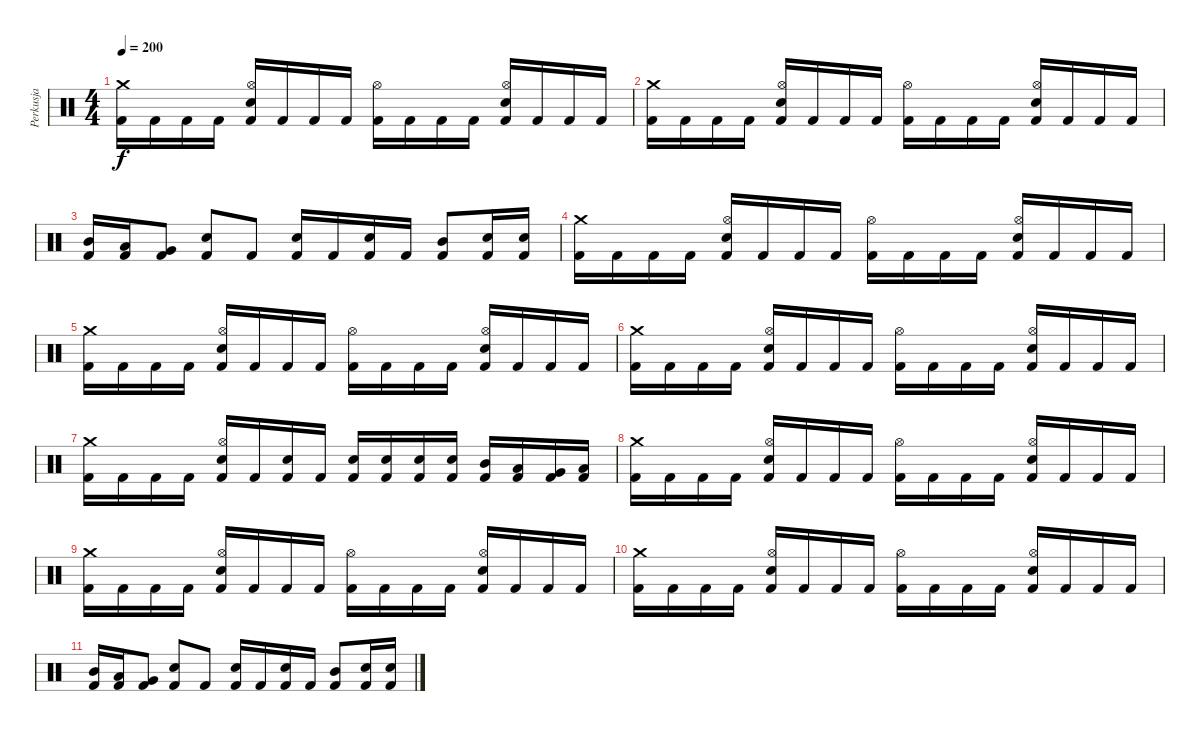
\track ("Perkusja" "Perkusja") {instrument percussion}
\staff {score}
\articulation defaults
\ts (4 4)
\tempo 200
\clef neutral
\ks c
("Crash medium (hit)" "Kick (hit) 2").16{dy f} "Kick (hit) 2".16 "Kick (hit) 2".16 "Kick (hit) 2".16 ("Hi-Hat (open)" "Electric Snare (hit)" "Kick (hit) 2").16 "Kick (hit) 2".16 "Kick (hit) 2".16 "Kick (hit) 2".16 ("Hi-Hat (open)" "Kick (hit) 2").16 "Kick (hit) 2".16 "Kick (hit) 2".16 "Kick (hit) 2".16 ("Hi-Hat (open)" "Electric Snare (hit)" "Kick (hit) 2").16 "Kick (hit) 2".16 "Kick (hit) 2".16 "Kick (hit) 2".16 |
("Crash medium (hit)" "Kick (hit) 2").16 "Kick (hit) 2".16 "Kick (hit) 2".16 "Kick (hit) 2".16 ("Hi-Hat (open)" "Electric Snare (hit)" "Kick (hit) 2").16 "Kick (hit) 2".16 "Kick (hit) 2".16 "Kick (hit) 2".16 ("Hi-Hat (open)" "Kick (hit) 2").16 "Kick (hit) 2".16 "Kick (hit) 2".16 "Kick (hit) 2".16 ("Hi-Hat (open)" "Electric Snare (hit)" "Kick (hit) 2").16 "Kick (hit) 2".16 "Kick (hit) 2".16 "Kick (hit) 2".16 |
("Mid Tom (hit)" "Kick (hit) 2").16 ("Low Tom (hit)" "Kick (hit) 2").16 ("Very Low Tom (hit)" "Kick (hit) 2").8 ("Electric Snare (hit)" "Kick (hit) 2").8 "Kick (hit) 2".8 ("Electric Snare (hit)" "Kick (hit) 2").16 "Kick (hit) 2".16 ("Electric Snare (hit)" "Kick (hit) 2").16 "Kick (hit) 2".16 ("Mid Tom (hit)" "Kick (hit) 2").8 ("Electric Snare (hit)" "Kick (hit) 2").16 ("Electric Snare (hit)" "Kick (hit) 2").16 |
("Crash medium (hit)" "Kick (hit) 2").16 "Kick (hit) 2".16 "Kick (hit) 2".16 "Kick (hit) 2".16 ("Hi-Hat (open)" "Electric Snare (hit)" "Kick (hit) 2").16 "Kick (hit) 2".16 "Kick (hit) 2".16 "Kick (hit) 2".16 ("Hi-Hat (open)" "Kick (hit) 2").16 "Kick (hit) 2".16 "Kick (hit) 2".16 "Kick (hit) 2".16 ("Hi-Hat (open)" "Electric Snare (hit)" "Kick (hit) 2").16 "Kick (hit) 2".16 "Kick (hit) 2".16 "Kick (hit) 2".16 |
("Crash medium (hit)" "Kick (hit) 2").16 "Kick (hit) 2".16 "Kick (hit) 2".16 "Kick (hit) 2".16 ("Hi-Hat (open)" "Electric Snare (hit)" "Kick (hit) 2").16 "Kick (hit) 2".16 "Kick (hit) 2".16 "Kick (hit) 2".16 ("Hi-Hat (open)" "Kick (hit) 2").16 "Kick (hit) 2".16 "Kick (hit) 2".16 "Kick (hit) 2".16 ("Hi-Hat (open)" "Electric Snare (hit)" "Kick (hit) 2").16 "Kick (hit) 2".16 "Kick (hit) 2".16 "Kick (hit) 2".16 |
("Crash medium (hit)" "Kick (hit) 2").16 "Kick (hit) 2".16 "Kick (hit) 2".16 "Kick (hit) 2".16 ("Hi-Hat (open)" "Electric Snare (hit)" "Kick (hit) 2").16 "Kick (hit) 2".16 "Kick (hit) 2".16 "Kick (hit) 2".16 ("Hi-Hat (open)" "Kick (hit) 2").16 "Kick (hit) 2".16 "Kick (hit) 2".16 "Kick (hit) 2".16 ("Hi-Hat (open)" "Electric Snare (hit)" "Kick (hit) 2").16 "Kick (hit) 2".16 "Kick (hit) 2".16 "Kick (hit) 2".16 |
("Crash medium (hit)" "Kick (hit) 2").16 "Kick (hit) 2".16 "Kick (hit) 2".16 "Kick (hit) 2".16 ("Hi-Hat (open)" "Electric Snare (hit)" "Kick (hit) 2").16 "Kick (hit) 2".16 ("Electric Snare (hit)" "Kick (hit) 2").16 "Kick (hit) 2".16 ("Electric Snare (hit)" "Kick (hit) 2").16 ("Electric Snare (hit)" "Kick (hit) 2").16 ("Electric Snare (hit)" "Kick (hit) 2").16 ("Electric Snare (hit)" "Kick (hit) 2").16 ("Mid Tom (hit)" "Kick (hit) 2").16 ("Low Tom (hit)" "Kick (hit) 2").16 ("Very Low Tom (hit)" "Kick (hit) 2").16 ("Low Floor Tom (hit)" "Kick (hit) 2").16 |
("Crash medium (hit)" "Kick (hit) 2").16 "Kick (hit) 2".16 "Kick (hit) 2".16 "Kick (hit) 2".16 ("Hi-Hat (open)" "Electric Snare (hit)" "Kick (hit) 2").16 "Kick (hit) 2".16 "Kick (hit) 2".16 "Kick (hit) 2".16 ("Hi-Hat (open)" "Kick (hit) 2").16 "Kick (hit) 2".16 "Kick (hit) 2".16 "Kick (hit) 2".16 ("Hi-Hat (open)" "Electric Snare (hit)" "Kick (hit) 2").16 "Kick (hit) 2".16 "Kick (hit) 2".16 "Kick (hit) 2".16 |
("Crash medium (hit)" "Kick (hit) 2").16 "Kick (hit) 2".16 "Kick (hit) 2".16 "Kick (hit) 2".16 ("Hi-Hat (open)" "Electric Snare (hit)" "Kick (hit) 2").16 "Kick (hit) 2".16 "Kick (hit) 2".16 "Kick (hit) 2".16 ("Hi-Hat (open)" "Kick (hit) 2").16 "Kick (hit) 2".16 "Kick (hit) 2".16 "Kick (hit) 2".16 ("Hi-Hat (open)" "Electric Snare (hit)" "Kick (hit) 2").16 "Kick (hit) 2".16 "Kick (hit) 2".16 "Kick (hit) 2".16 |
("Crash medium (hit)" "Kick (hit) 2").16 "Kick (hit) 2".16 "Kick (hit) 2".16 "Kick (hit) 2".16 ("Hi-Hat (open)" "Electric Snare (hit)" "Kick (hit) 2").16 "Kick (hit) 2".16 "Kick (hit) 2".16 "Kick (hit) 2".16 ("Hi-Hat (open)" "Kick (hit) 2").16 "Kick (hit) 2".16 "Kick (hit) 2".16 "Kick (hit) 2".16 ("Hi-Hat (open)" "Electric Snare (hit)" "Kick (hit) 2").16 "Kick (hit) 2".16 "Kick (hit) 2".16 "Kick (hit) 2".16 |
("Mid Tom (hit)" "Kick (hit) 2").16 ("Low Tom (hit)" "Kick (hit) 2").16 ("Very Low Tom (hit)" "Kick (hit) 2").8 ("Electric Snare (hit)" "Kick (hit) 2").8 "Kick (hit) 2".8 ("Electric Snare (hit)" "Kick (hit) 2").16 "Kick (hit) 2".16 ("Electric Snare (hit)" "Kick (hit) 2").16 "Kick (hit) 2".16 ("Mid Tom (hit)" "Kick (hit) 2").8 ("Electric Snare (hit)" "Kick (hit) 2").16 ("Electric Snare (hit)" "Kick (hit) 2").16
